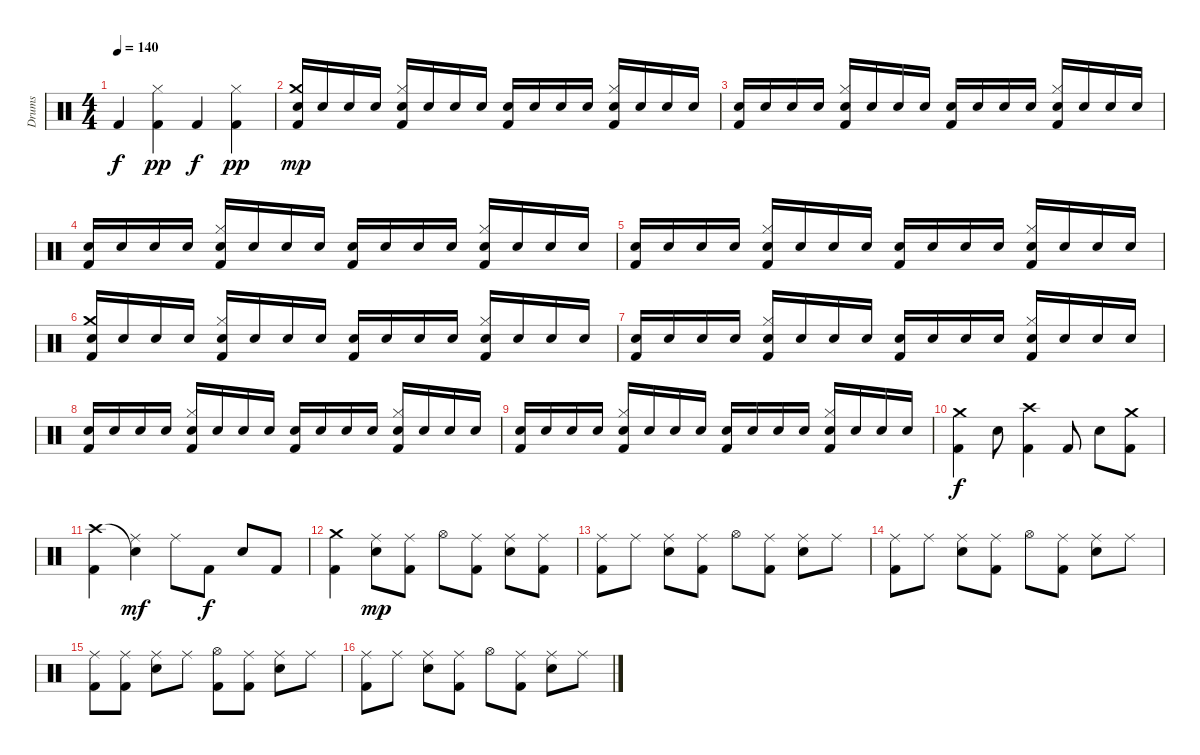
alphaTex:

\track ("Drums" "Drums") {instrument percussion}
\staff {score}
\articulation defaults
\ts (4 4)
\tempo 140
\clef neutral
\ks c "Kick (hit) 2".4{dy f}
("Hi-Hat (closed)" "Kick (hit) 2").4{dy pp} "Kick (hit) 2".4{dy f} ("Hi-Hat (closed)" "Kick (hit) 2").4{dy pp} |
("Crash medium (hit)" "Electric Snare (hit)" "Kick (hit) 2").16{dy mp} "Electric Snare (hit)".16 "Electric Snare (hit)".16 "Electric Snare (hit)".16 ("Hi-Hat (closed)" "Electric Snare (hit)" "Kick (hit) 2").16 "Electric Snare (hit)".16 "Electric Snare (hit)".16 "Electric Snare (hit)".16 ("Electric Snare (hit)" "Kick (hit) 2").16 "Electric Snare (hit)".16 "Electric Snare (hit)".16 "Electric Snare (hit)".16 ("Hi-Hat (closed)" "Electric Snare (hit)" "Kick (hit) 2").16 "Electric Snare (hit)".16 "Electric Snare (hit)".16 "Electric Snare (hit)".16 |
("Electric Snare (hit)" "Kick (hit) 2").16 "Electric Snare (hit)".16 "Electric Snare (hit)".16 "Electric Snare (hit)".16 ("Hi-Hat (closed)" "Electric Snare (hit)" "Kick (hit) 2").16 "Electric Snare (hit)".16 "Electric Snare (hit)".16 "Electric Snare (hit)".16 ("Electric Snare (hit)" "Kick (hit) 2").16 "Electric Snare (hit)".16 "Electric Snare (hit)".16 "Electric Snare (hit)".16 ("Hi-Hat (closed)" "Electric Snare (hit)" "Kick (hit) 2").16 "Electric Snare (hit)".16 "Electric Snare (hit)".16 "Electric Snare (hit)".16 |
("Electric Snare (hit)" "Kick (hit) 2").16 "Electric Snare (hit)".16 "Electric Snare (hit)".16 "Electric Snare (hit)".16 ("Hi-Hat (closed)" "Electric Snare (hit)" "Kick (hit) 2").16 "Electric Snare (hit)".16 "Electric Snare (hit)".16 "Electric Snare (hit)".16 ("Electric Snare (hit)" "Kick (hit) 2").16 "Electric Snare (hit)".16 "Electric Snare (hit)".16 "Electric Snare (hit)".16 ("Hi-Hat (closed)" "Electric Snare (hit)" "Kick (hit) 2").16 "Electric Snare (hit)".16 "Electric Snare (hit)".16 "Electric Snare (hit)".16 |
("Electric Snare (hit)" "Kick (hit) 2").16 "Electric Snare (hit)".16 "Electric Snare (hit)".16 "Electric Snare (hit)".16 ("Hi-Hat (closed)" "Electric Snare (hit)" "Kick (hit) 2").16 "Electric Snare (hit)".16 "Electric Snare (hit)".16 "Electric Snare (hit)".16 ("Electric Snare (hit)" "Kick (hit) 2").16 "Electric Snare (hit)".16 "Electric Snare (hit)".16 "Electric Snare (hit)".16 ("Hi-Hat (closed)" "Electric Snare (hit)" "Kick (hit) 2").16 "Electric Snare (hit)".16 "Electric Snare (hit)".16 "Electric Snare (hit)".16 |
("Crash medium (hit)" "Electric Snare (hit)" "Kick (hit) 2").16 "Electric Snare (hit)".16 "Electric Snare (hit)".16 "Electric Snare (hit)".16 ("Hi-Hat (closed)" "Electric Snare (hit)" "Kick (hit) 2").16 "Electric Snare (hit)".16 "Electric Snare (hit)".16 "Electric Snare (hit)".16 ("Electric Snare (hit)" "Kick (hit) 2").16 "Electric Snare (hit)".16 "Electric Snare (hit)".16 "Electric Snare (hit)".16 ("Hi-Hat (closed)" "Electric Snare (hit)" "Kick (hit) 2").16 "Electric Snare (hit)".16 "Electric Snare (hit)".16 "Electric Snare (hit)".16 |
("Electric Snare (hit)" "Kick (hit) 2").16 "Electric Snare (hit)".16 "Electric Snare (hit)".16 "Electric Snare (hit)".16 ("Hi-Hat (closed)" "Electric Snare (hit)" "Kick (hit) 2").16 "Electric Snare (hit)".16 "Electric Snare (hit)".16 "Electric Snare (hit)".16 ("Electric Snare (hit)" "Kick (hit) 2").16 "Electric Snare (hit)".16 "Electric Snare (hit)".16 "Electric Snare (hit)".16 ("Hi-Hat (closed)" "Electric Snare (hit)" "Kick (hit) 2").16 "Electric Snare (hit)".16 "Electric Snare (hit)".16 "Electric Snare (hit)".16 |
("Electric Snare (hit)" "Kick (hit) 2").16 "Electric Snare (hit)".16 "Electric Snare (hit)".16 "Electric Snare (hit)".16 ("Hi-Hat (closed)" "Electric Snare (hit)" "Kick (hit) 2").16 "Electric Snare (hit)".16 "Electric Snare (hit)".16 "Electric Snare (hit)".16 ("Electric Snare (hit)" "Kick (hit) 2").16 "Electric Snare (hit)".16 "Electric Snare (hit)".16 "Electric Snare (hit)".16 ("Hi-Hat (closed)" "Electric Snare (hit)" "Kick (hit) 2").16 "Electric Snare (hit)".16 "Electric Snare (hit)".16 "Electric Snare (hit)".16 |
("Electric Snare (hit)" "Kick (hit) 2").16 "Electric Snare (hit)".16 "Electric Snare (hit)".16 "Electric Snare (hit)".16 ("Hi-Hat (closed)" "Electric Snare (hit)" "Kick (hit) 2").16 "Electric Snare (hit)".16 "Electric Snare (hit)".16 "Electric Snare (hit)".16 ("Electric Snare (hit)" "Kick (hit) 2").16 "Electric Snare (hit)".16 "Electric Snare (hit)".16 "Electric Snare (hit)".16 ("Hi-Hat (closed)" "Electric Snare (hit)" "Kick (hit) 2").16 "Electric Snare (hit)".16 "Electric Snare (hit)".16 "Electric Snare (hit)".16 |
("Crash medium (hit)" "Kick (hit) 2").4{dy f} "Electric Snare (hit)".8 ("Crash high (hit)" "Kick (hit) 2").4 "Kick (hit) 2".8 "Electric Snare (hit)".8 ("Crash medium (hit)" "Kick (hit) 2").8 |
("Crash high (hit)" "Kick (hit) 2").4 ("Snare (hit)"{t} "Ride (middle)").4{dy mf} "Ride (middle)".8 "Kick (hit) 2".8{dy f} "Electric Snare (hit)".8 "Kick (hit) 2".8 |
("Crash medium (hit)" "Kick (hit) 2").4 ("Ride (middle)" "Electric Snare (hit)").8{dy mp} ("Ride (middle)" "Kick (hit) 2").8 "Hi-Hat (open)".8 ("Ride (middle)" "Kick (hit) 2").8 ("Ride (middle)" "Electric Snare (hit)").8 ("Ride (middle)" "Kick (hit) 2").8 |
("Ride (middle)" "Kick (hit) 2").8 "Ride (middle)".8 ("Ride (middle)" "Electric Snare (hit)").8 ("Ride (middle)" "Kick (hit) 2").8 "Hi-Hat (open)".8 ("Ride (middle)" "Kick (hit) 2").8 ("Ride (middle)" "Electric Snare (hit)").8 "Ride (middle)".8 |
("Ride (middle)" "Kick (hit) 2").8 "Ride (middle)".8 ("Ride (middle)" "Electric Snare (hit)").8 ("Ride (middle)" "Kick (hit) 2").8 "Hi-Hat (open)".8 ("Ride (middle)" "Kick (hit) 2").8 ("Ride (middle)" "Electric Snare (hit)").8 "Ride (middle)".8 |
("Ride (middle)" "Kick (hit) 2").8 ("Ride (middle)" "Kick (hit) 2").8 ("Ride (middle)" "Electric Snare (hit)").8 "Ride (middle)".8 ("Hi-Hat (open)" "Kick (hit) 2").8 ("Ride (middle)" "Kick (hit) 2").8 ("Ride (middle)" "Electric Snare (hit)").8 "Ride (middle)".8 |
("Ride (middle)" "Kick (hit) 2").8 "Ride (middle)".8 ("Ride (middle)" "Electric Snare (hit)").8 ("Ride (middle)" "Kick (hit) 2").8 "Hi-Hat (open)".8 ("Ride (middle)" "Kick (hit) 2").8 ("Ride (middle)" "Electric Snare (hit)").8 "Ride (middle)".8
